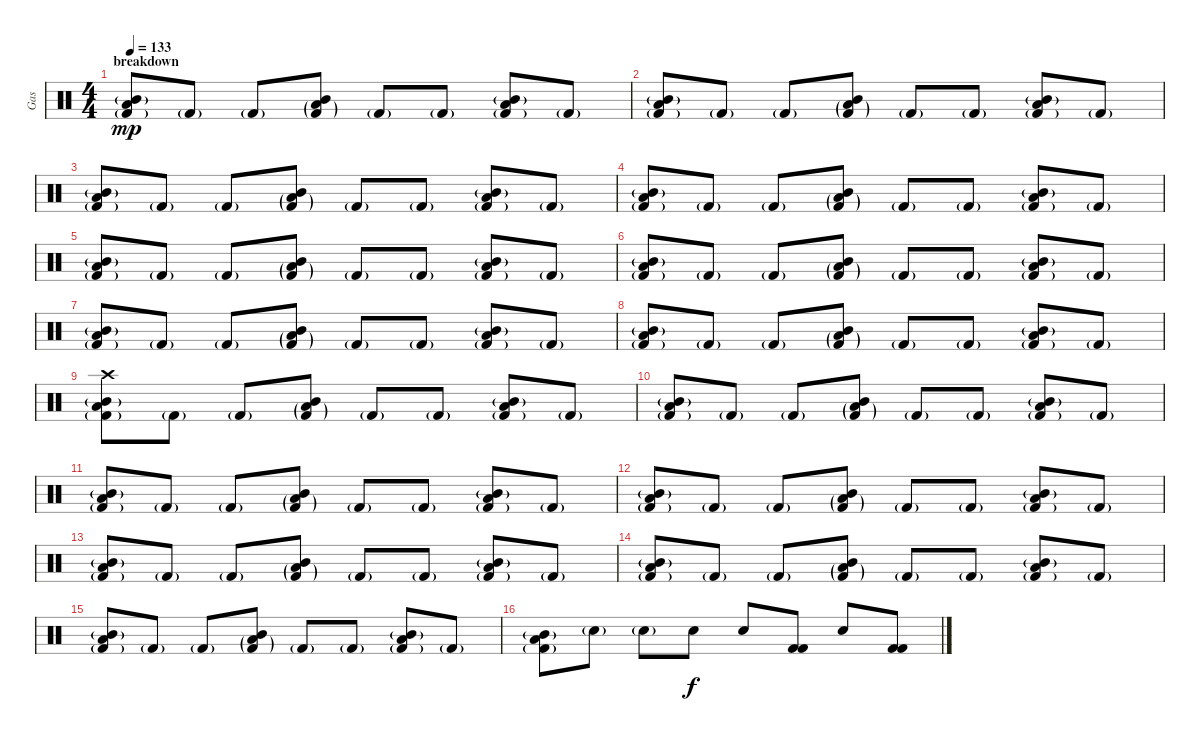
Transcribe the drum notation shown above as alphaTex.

\track ("Gas" "Gas") {instrument percussion}
\staff {score}
\articulation defaults
\ts (4 4)
\section ("" "breakdown")
\tempo 133
\clef neutral
\ks c
("Mid Tom (hit)"{g} "Low Tom (hit)" "Kick (hit) 2"{g}).8{dy mp} "Kick (hit) 2"{g}.8 "Kick (hit) 2"{g}.8 ("Mid Tom (hit)" "Low Tom (hit)"{g} "Kick (hit) 2"{g}).8 "Kick (hit) 2"{g}.8 "Kick (hit) 2"{g}.8 ("Mid Tom (hit)"{g} "Low Tom (hit)" "Kick (hit) 2"{g}).8 "Kick (hit) 2"{g}.8 |
("Mid Tom (hit)"{g} "Low Floor Tom (hit)" "Kick (hit) 2"{g}).8 "Kick (hit) 2"{g}.8 "Kick (hit) 2"{g}.8 ("Mid Tom (hit)" "Low Tom (hit)"{g} "Kick (hit) 2"{g}).8 "Kick (hit) 2"{g}.8 "Kick (hit) 2"{g}.8 ("Mid Tom (hit)"{g} "Low Tom (hit)" "Kick (hit) 2"{g}).8 "Kick (hit) 2"{g}.8 |
("Mid Tom (hit)"{g} "Low Floor Tom (hit)" "Kick (hit) 2"{g}).8 "Kick (hit) 2"{g}.8 "Kick (hit) 2"{g}.8 ("Mid Tom (hit)" "Low Tom (hit)"{g} "Kick (hit) 2"{g}).8 "Kick (hit) 2"{g}.8 "Kick (hit) 2"{g}.8 ("Mid Tom (hit)"{g} "Low Tom (hit)" "Kick (hit) 2"{g}).8 "Kick (hit) 2"{g}.8 |
("Mid Tom (hit)"{g} "Low Floor Tom (hit)" "Kick (hit) 2"{g}).8 "Kick (hit) 2"{g}.8 "Kick (hit) 2"{g}.8 ("Mid Tom (hit)" "Low Tom (hit)"{g} "Kick (hit) 2"{g}).8 "Kick (hit) 2"{g}.8 "Kick (hit) 2"{g}.8 ("Mid Tom (hit)"{g} "Low Tom (hit)" "Kick (hit) 2"{g}).8 "Kick (hit) 2"{g}.8 |
("Mid Tom (hit)"{g} "Low Tom (hit)" "Kick (hit) 2"{g}).8 "Kick (hit) 2"{g}.8 "Kick (hit) 2"{g}.8 ("Mid Tom (hit)" "Low Tom (hit)"{g} "Kick (hit) 2"{g}).8 "Kick (hit) 2"{g}.8 "Kick (hit) 2"{g}.8 ("Mid Tom (hit)"{g} "Low Tom (hit)" "Kick (hit) 2"{g}).8 "Kick (hit) 2"{g}.8 |
("Mid Tom (hit)"{g} "Low Floor Tom (hit)" "Kick (hit) 2"{g}).8 "Kick (hit) 2"{g}.8 "Kick (hit) 2"{g}.8 ("Mid Tom (hit)" "Low Tom (hit)"{g} "Kick (hit) 2"{g}).8 "Kick (hit) 2"{g}.8 "Kick (hit) 2"{g}.8 ("Mid Tom (hit)"{g} "Low Tom (hit)" "Kick (hit) 2"{g}).8 "Kick (hit) 2"{g}.8 |
("Mid Tom (hit)"{g} "Low Floor Tom (hit)" "Kick (hit) 2"{g}).8 "Kick (hit) 2"{g}.8 "Kick (hit) 2"{g}.8 ("Mid Tom (hit)" "Low Tom (hit)"{g} "Kick (hit) 2"{g}).8 "Kick (hit) 2"{g}.8 "Kick (hit) 2"{g}.8 ("Mid Tom (hit)"{g} "Low Tom (hit)" "Kick (hit) 2"{g}).8 "Kick (hit) 2"{g}.8 |
("Mid Tom (hit)"{g} "Low Tom (hit)" "Kick (hit) 2"{g}).8 "Kick (hit) 2"{g}.8 "Kick (hit) 2"{g}.8 ("Mid Tom (hit)" "Low Tom (hit)"{g} "Kick (hit) 2"{g}).8 "Kick (hit) 2"{g}.8 "Kick (hit) 2"{g}.8 ("Mid Tom (hit)"{g} "Low Tom (hit)" "Kick (hit) 2"{g}).8 "Kick (hit) 2"{g}.8 |
("Crash high (hit)" "Mid Tom (hit)"{g} "Low Tom (hit)" "Kick (hit) 2"{g}).8 "Kick (hit) 2"{g}.8 "Kick (hit) 2"{g}.8 ("Mid Tom (hit)" "Low Tom (hit)"{g} "Kick (hit) 2"{g}).8 "Kick (hit) 2"{g}.8 "Kick (hit) 2"{g}.8 ("Mid Tom (hit)"{g} "Low Tom (hit)" "Kick (hit) 2"{g}).8 "Kick (hit) 2"{g}.8 |
("Mid Tom (hit)"{g} "Low Floor Tom (hit)" "Kick (hit) 2"{g}).8 "Kick (hit) 2"{g}.8 "Kick (hit) 2"{g}.8 ("Mid Tom (hit)" "Low Tom (hit)"{g} "Kick (hit) 2"{g}).8 "Kick (hit) 2"{g}.8 "Kick (hit) 2"{g}.8 ("Mid Tom (hit)"{g} "Low Tom (hit)" "Kick (hit) 2"{g}).8 "Kick (hit) 2"{g}.8 |
("Mid Tom (hit)"{g} "Low Floor Tom (hit)" "Kick (hit) 2"{g}).8 "Kick (hit) 2"{g}.8 "Kick (hit) 2"{g}.8 ("Mid Tom (hit)" "Low Tom (hit)"{g} "Kick (hit) 2"{g}).8 "Kick (hit) 2"{g}.8 "Kick (hit) 2"{g}.8 ("Mid Tom (hit)"{g} "Low Tom (hit)" "Kick (hit) 2"{g}).8 "Kick (hit) 2"{g}.8 |
("Mid Tom (hit)"{g} "Low Floor Tom (hit)" "Kick (hit) 2"{g}).8 "Kick (hit) 2"{g}.8 "Kick (hit) 2"{g}.8 ("Mid Tom (hit)" "Low Tom (hit)"{g} "Kick (hit) 2"{g}).8 "Kick (hit) 2"{g}.8 "Kick (hit) 2"{g}.8 ("Mid Tom (hit)"{g} "Low Tom (hit)" "Kick (hit) 2"{g}).8 "Kick (hit) 2"{g}.8 |
("Mid Tom (hit)"{g} "Low Floor Tom (hit)" "Kick (hit) 2"{g}).8 "Kick (hit) 2"{g}.8 "Kick (hit) 2"{g}.8 ("Mid Tom (hit)" "Low Tom (hit)"{g} "Kick (hit) 2"{g}).8 "Kick (hit) 2"{g}.8 "Kick (hit) 2"{g}.8 ("Mid Tom (hit)"{g} "Low Tom (hit)" "Kick (hit) 2"{g}).8 "Kick (hit) 2"{g}.8 |
("Mid Tom (hit)"{g} "Low Floor Tom (hit)" "Kick (hit) 2"{g}).8 "Kick (hit) 2"{g}.8 "Kick (hit) 2"{g}.8 ("Mid Tom (hit)" "Low Tom (hit)"{g} "Kick (hit) 2"{g}).8 "Kick (hit) 2"{g}.8 "Kick (hit) 2"{g}.8 ("Mid Tom (hit)"{g} "Low Tom (hit)" "Kick (hit) 2"{g}).8 "Kick (hit) 2"{g}.8 |
("Mid Tom (hit)"{g} "Low Floor Tom (hit)" "Kick (hit) 2"{g}).8 "Kick (hit) 2"{g}.8 "Kick (hit) 2"{g}.8 ("Mid Tom (hit)" "Low Tom (hit)"{g} "Kick (hit) 2"{g}).8 "Kick (hit) 2"{g}.8 "Kick (hit) 2"{g}.8 ("Mid Tom (hit)"{g} "Low Tom (hit)" "Kick (hit) 2"{g}).8 "Kick (hit) 2"{g}.8 |
("Mid Tom (hit)"{g} "Low Floor Tom (hit)" "Kick (hit) 2"{g}).8 "Electric Snare (hit)"{g}.8 "Electric Snare (hit)"{g}.8 "Electric Snare (hit)".8{dy f} "Electric Snare (hit)".8 ("Kick (hit) 2" "Kick (hit) 2").8 "Electric Snare (hit)".8 ("Kick (hit) 2" "Kick (hit) 2").8
